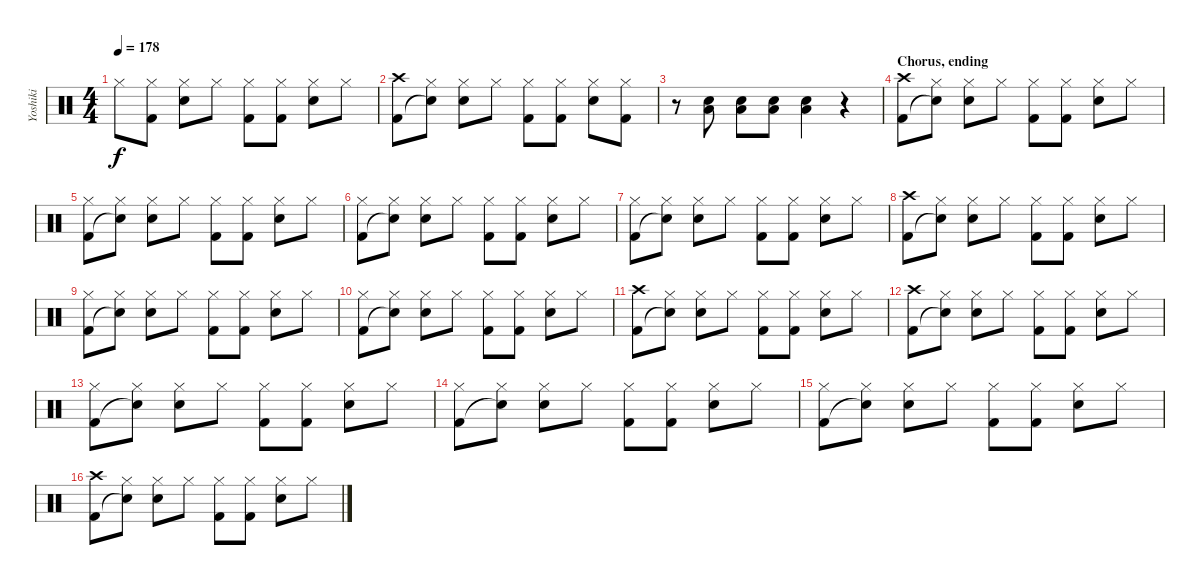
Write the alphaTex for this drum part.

\track ("Yoshiki" "Yoshiki") {instrument percussion}
\staff {score}
\articulation defaults
\ts (4 4)
\tempo 178
\clef neutral
\ks c "Hi-Hat (closed)".8{dy f}
("Hi-Hat (closed)" "Kick (hit) 2").8 ("Hi-Hat (closed)" "Snare (hit) 2").8 "Hi-Hat (closed)".8 ("Hi-Hat (closed)" "Kick (hit) 2").8 ("Hi-Hat (closed)" "Kick (hit) 2").8 ("Hi-Hat (closed)" "Snare (hit) 2").8 "Hi-Hat (closed)".8 |
("Crash high (hit)" "Kick (hit) 2").8 ("Hi-Hat (closed)" "Snare (hit)"{t}).8 ("Hi-Hat (closed)" "Snare (hit) 2").8 "Hi-Hat (closed)".8 ("Hi-Hat (closed)" "Kick (hit) 2").8 ("Hi-Hat (closed)" "Kick (hit) 2").8 ("Hi-Hat (closed)" "Snare (hit) 2").8 ("Hi-Hat (closed)" "Kick (hit) 2").8 |
r.8 ("Snare (hit) 2" "Low Floor Tom (hit)").8 ("Snare (hit) 2" "Low Floor Tom (hit)").8 ("Snare (hit) 2" "Low Floor Tom (hit)").8 ("Snare (hit) 2" "Low Floor Tom (hit)").4 r.4 |
\section ("" "Chorus, ending")
("Crash high (hit)" "Kick (hit) 2").8 ("Hi-Hat (closed)" "Snare (hit)"{t}).8 ("Hi-Hat (closed)" "Snare (hit) 2").8 "Hi-Hat (closed)".8 ("Hi-Hat (closed)" "Kick (hit) 2").8 ("Hi-Hat (closed)" "Kick (hit) 2").8 ("Hi-Hat (closed)" "Snare (hit) 2").8 "Hi-Hat (closed)".8 |
("Hi-Hat (closed)" "Kick (hit) 2").8 ("Hi-Hat (closed)" "Snare (hit)"{t}).8 ("Hi-Hat (closed)" "Snare (hit) 2").8 "Hi-Hat (closed)".8 ("Hi-Hat (closed)" "Kick (hit) 2").8 ("Hi-Hat (closed)" "Kick (hit) 2").8 ("Hi-Hat (closed)" "Snare (hit) 2").8 "Hi-Hat (closed)".8 |
("Hi-Hat (closed)" "Kick (hit) 2").8 ("Hi-Hat (closed)" "Snare (hit)"{t}).8 ("Hi-Hat (closed)" "Snare (hit) 2").8 "Hi-Hat (closed)".8 ("Hi-Hat (closed)" "Kick (hit) 2").8 ("Hi-Hat (closed)" "Kick (hit) 2").8 ("Hi-Hat (closed)" "Snare (hit) 2").8 "Hi-Hat (closed)".8 |
("Hi-Hat (closed)" "Kick (hit) 2").8 ("Hi-Hat (closed)" "Snare (hit)"{t}).8 ("Hi-Hat (closed)" "Snare (hit) 2").8 "Hi-Hat (closed)".8 ("Hi-Hat (closed)" "Kick (hit) 2").8 ("Hi-Hat (closed)" "Kick (hit) 2").8 ("Hi-Hat (closed)" "Snare (hit) 2").8 "Hi-Hat (closed)".8 |
("Crash high (hit)" "Kick (hit) 2").8 ("Hi-Hat (closed)" "Snare (hit)"{t}).8 ("Hi-Hat (closed)" "Snare (hit) 2").8 "Hi-Hat (closed)".8 ("Hi-Hat (closed)" "Kick (hit) 2").8 ("Hi-Hat (closed)" "Kick (hit) 2").8 ("Hi-Hat (closed)" "Snare (hit) 2").8 "Hi-Hat (closed)".8 |
("Hi-Hat (closed)" "Kick (hit) 2").8 ("Hi-Hat (closed)" "Snare (hit)"{t}).8 ("Hi-Hat (closed)" "Snare (hit) 2").8 "Hi-Hat (closed)".8 ("Hi-Hat (closed)" "Kick (hit) 2").8 ("Hi-Hat (closed)" "Kick (hit) 2").8 ("Hi-Hat (closed)" "Snare (hit) 2").8 "Hi-Hat (closed)".8 |
("Hi-Hat (closed)" "Kick (hit) 2").8 ("Hi-Hat (closed)" "Snare (hit)"{t}).8 ("Hi-Hat (closed)" "Snare (hit) 2").8 "Hi-Hat (closed)".8 ("Hi-Hat (closed)" "Kick (hit) 2").8 ("Hi-Hat (closed)" "Kick (hit) 2").8 ("Hi-Hat (closed)" "Snare (hit) 2").8 "Hi-Hat (closed)".8 |
("Crash high (hit)" "Kick (hit) 2").8 ("Hi-Hat (closed)" "Snare (hit)"{t}).8 ("Hi-Hat (closed)" "Snare (hit) 2").8 "Hi-Hat (closed)".8 ("Hi-Hat (closed)" "Kick (hit) 2").8 ("Hi-Hat (closed)" "Kick (hit) 2").8 ("Hi-Hat (closed)" "Snare (hit) 2").8 "Hi-Hat (closed)".8 |
("Crash high (hit)" "Kick (hit) 2").8 ("Hi-Hat (closed)" "Snare (hit)"{t}).8 ("Hi-Hat (closed)" "Snare (hit) 2").8 "Hi-Hat (closed)".8 ("Hi-Hat (closed)" "Kick (hit) 2").8 ("Hi-Hat (closed)" "Kick (hit) 2").8 ("Hi-Hat (closed)" "Snare (hit) 2").8 "Hi-Hat (closed)".8 |
("Hi-Hat (closed)" "Kick (hit) 2").8 ("Hi-Hat (closed)" "Snare (hit)"{t}).8 ("Hi-Hat (closed)" "Snare (hit) 2").8 "Hi-Hat (closed)".8 ("Hi-Hat (closed)" "Kick (hit) 2").8 ("Hi-Hat (closed)" "Kick (hit) 2").8 ("Hi-Hat (closed)" "Snare (hit) 2").8 "Hi-Hat (closed)".8 |
("Hi-Hat (closed)" "Kick (hit) 2").8 ("Hi-Hat (closed)" "Snare (hit)"{t}).8 ("Hi-Hat (closed)" "Snare (hit) 2").8 "Hi-Hat (closed)".8 ("Hi-Hat (closed)" "Kick (hit) 2").8 ("Hi-Hat (closed)" "Kick (hit) 2").8 ("Hi-Hat (closed)" "Snare (hit) 2").8 "Hi-Hat (closed)".8 |
("Hi-Hat (closed)" "Kick (hit) 2").8 ("Hi-Hat (closed)" "Snare (hit)"{t}).8 ("Hi-Hat (closed)" "Snare (hit) 2").8 "Hi-Hat (closed)".8 ("Hi-Hat (closed)" "Kick (hit) 2").8 ("Hi-Hat (closed)" "Kick (hit) 2").8 ("Hi-Hat (closed)" "Snare (hit) 2").8 "Hi-Hat (closed)".8 |
("Crash high (hit)" "Kick (hit) 2").8 ("Hi-Hat (closed)" "Snare (hit)"{t}).8 ("Hi-Hat (closed)" "Snare (hit) 2").8 "Hi-Hat (closed)".8 ("Hi-Hat (closed)" "Kick (hit) 2").8 ("Hi-Hat (closed)" "Kick (hit) 2").8 ("Hi-Hat (closed)" "Snare (hit) 2").8 "Hi-Hat (closed)".8
